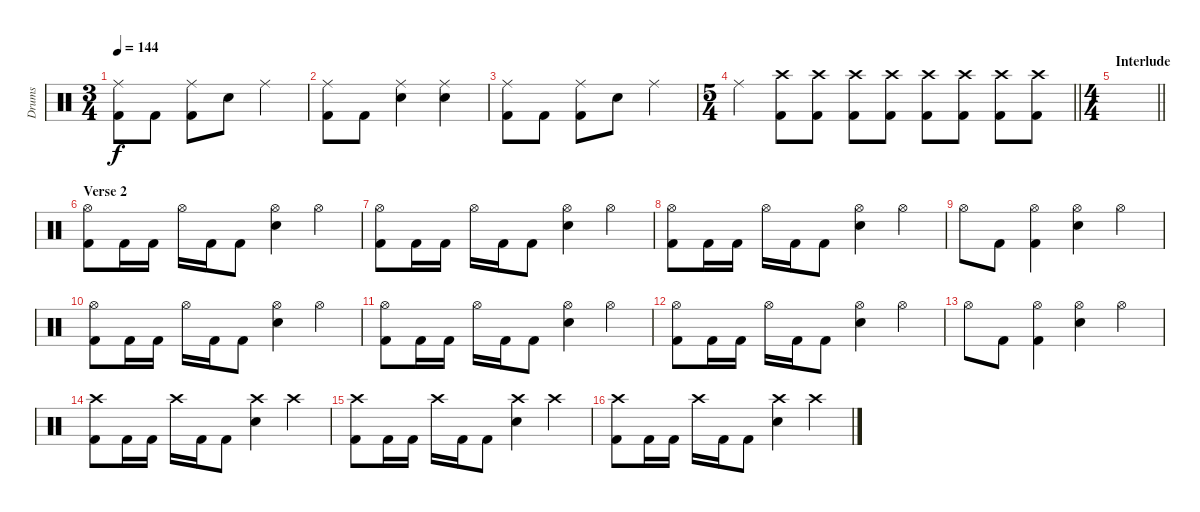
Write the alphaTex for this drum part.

\track ("Drums" "Drums") {instrument percussion}
\staff {score}
\articulation defaults
\ts (3 4)
\tempo 144
\clef neutral
\ks c
("Ride (middle)" "Kick (hit) 2").8{dy f} "Kick (hit) 2".8 ("Ride (middle)" "Kick (hit) 2").8 "Snare (hit) 2".8 "Ride (middle)".4 |
("Ride (middle)" "Kick (hit) 2").8 "Kick (hit) 2".8 ("Ride (middle)" "Snare (hit) 2").4 ("Ride (middle)" "Snare (hit) 2").4 |
("Ride (middle)" "Kick (hit) 2").8 "Kick (hit) 2".8 ("Ride (middle)" "Kick (hit) 2").8 "Snare (hit) 2".8 "Ride (middle)".4 |
\ts (5 4)
\barLineRight lightlight "Ride (middle)".4
("Crash high (hit)" "Kick (hit) 2").8 ("Crash high (hit)" "Kick (hit) 2").8 ("Crash high (hit)" "Kick (hit) 2").8 ("Crash high (hit)" "Kick (hit) 2").8 ("Crash high (hit)" "Kick (hit) 2").8 ("Crash high (hit)" "Kick (hit) 2").8 ("Crash high (hit)" "Kick (hit) 2").8 ("Crash high (hit)" "Kick (hit) 2").8 |
\ts (4 4)
\section ("" "Interlude")
\barLineRight lightlight
|
\section ("" "Verse 2")
("Hi-Hat (open)" "Kick (hit) 2").8 "Kick (hit) 2".16 "Kick (hit) 2".16 "Hi-Hat (open)".16 "Kick (hit) 2".16 "Kick (hit) 2".8 ("Hi-Hat (open)" "Snare (hit) 2").4 "Hi-Hat (open)".4 |
("Hi-Hat (open)" "Kick (hit) 2").8 "Kick (hit) 2".16 "Kick (hit) 2".16 "Hi-Hat (open)".16 "Kick (hit) 2".16 "Kick (hit) 2".8 ("Hi-Hat (open)" "Snare (hit) 2").4 "Hi-Hat (open)".4 |
("Hi-Hat (open)" "Kick (hit) 2").8 "Kick (hit) 2".16 "Kick (hit) 2".16 "Hi-Hat (open)".16 "Kick (hit) 2".16 "Kick (hit) 2".8 ("Hi-Hat (open)" "Snare (hit) 2").4 "Hi-Hat (open)".4 |
"Hi-Hat (open)".8 "Kick (hit) 2".8 ("Hi-Hat (open)" "Kick (hit) 2").4 ("Hi-Hat (open)" "Snare (hit) 2").4 "Hi-Hat (open)".4 |
("Hi-Hat (open)" "Kick (hit) 2").8 "Kick (hit) 2".16 "Kick (hit) 2".16 "Hi-Hat (open)".16 "Kick (hit) 2".16 "Kick (hit) 2".8 ("Hi-Hat (open)" "Snare (hit) 2").4 "Hi-Hat (open)".4 |
("Hi-Hat (open)" "Kick (hit) 2").8 "Kick (hit) 2".16 "Kick (hit) 2".16 "Hi-Hat (open)".16 "Kick (hit) 2".16 "Kick (hit) 2".8 ("Hi-Hat (open)" "Snare (hit) 2").4 "Hi-Hat (open)".4 |
("Hi-Hat (open)" "Kick (hit) 2").8 "Kick (hit) 2".16 "Kick (hit) 2".16 "Hi-Hat (open)".16 "Kick (hit) 2".16 "Kick (hit) 2".8 ("Hi-Hat (open)" "Snare (hit) 2").4 "Hi-Hat (open)".4 |
"Hi-Hat (open)".8 "Kick (hit) 2".8 ("Hi-Hat (open)" "Kick (hit) 2").4 ("Hi-Hat (open)" "Snare (hit) 2").4 "Hi-Hat (open)".4 |
("Crash high (hit)" "Kick (hit) 2").8 "Kick (hit) 2".16 "Kick (hit) 2".16 "Crash high (hit)".16 "Kick (hit) 2".16 "Kick (hit) 2".8 ("Crash high (hit)" "Snare (hit) 2").4 "Crash high (hit)".4 |
("Crash high (hit)" "Kick (hit) 2").8 "Kick (hit) 2".16 "Kick (hit) 2".16 "Crash high (hit)".16 "Kick (hit) 2".16 "Kick (hit) 2".8 ("Crash high (hit)" "Snare (hit) 2").4 "Crash high (hit)".4 |
("Crash high (hit)" "Kick (hit) 2").8 "Kick (hit) 2".16 "Kick (hit) 2".16 "Crash high (hit)".16 "Kick (hit) 2".16 "Kick (hit) 2".8 ("Crash high (hit)" "Snare (hit) 2").4 "Crash high (hit)".4
